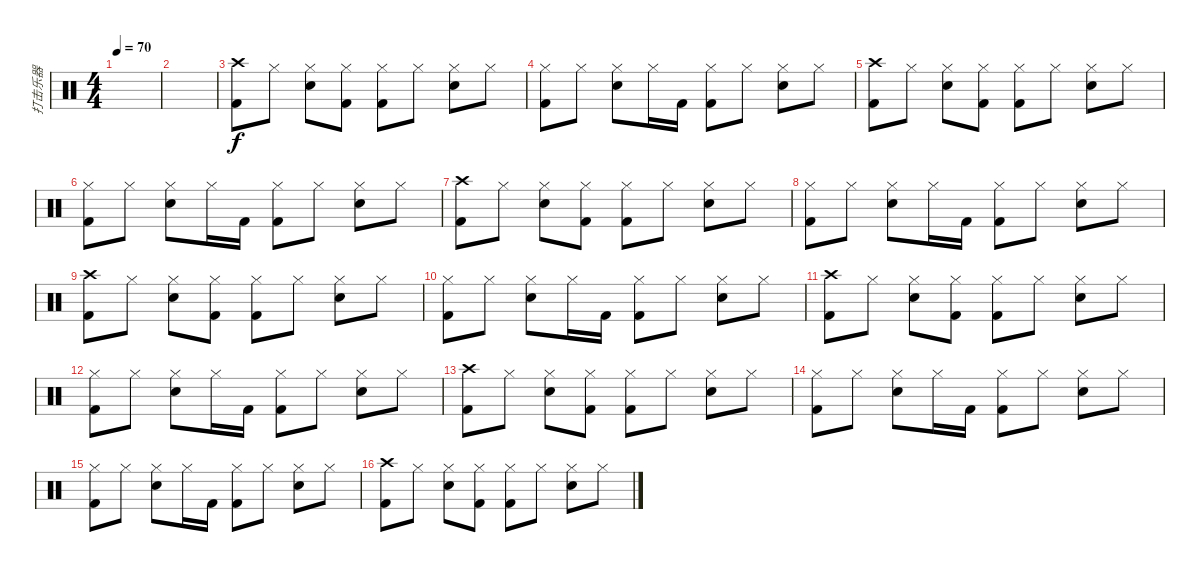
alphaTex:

\track ("打击乐器" "打击乐器") {instrument percussion}
\staff {score}
\articulation defaults
\ts (4 4)
\tempo 70
\clef neutral
\ks c
|
|
("Crash high (hit)" "Kick (hit) 2").8 "Hi-Hat (closed)".8 ("Hi-Hat (closed)" "Snare (hit) 2").8 ("Hi-Hat (closed)" "Kick (hit) 2").8 ("Hi-Hat (closed)" "Kick (hit) 2").8 "Hi-Hat (closed)".8 ("Hi-Hat (closed)" "Snare (hit) 2").8 "Hi-Hat (closed)".8 |
("Hi-Hat (closed)" "Kick (hit) 2").8 "Hi-Hat (closed)".8 ("Hi-Hat (closed)" "Snare (hit) 2").8 "Hi-Hat (closed)".16 "Kick (hit) 2".16 ("Hi-Hat (closed)" "Kick (hit) 2").8 "Hi-Hat (closed)".8 ("Hi-Hat (closed)" "Snare (hit) 2").8 "Hi-Hat (closed)".8 |
("Crash high (hit)" "Kick (hit) 2").8 "Hi-Hat (closed)".8 ("Hi-Hat (closed)" "Snare (hit) 2").8 ("Hi-Hat (closed)" "Kick (hit) 2").8 ("Hi-Hat (closed)" "Kick (hit) 2").8 "Hi-Hat (closed)".8 ("Hi-Hat (closed)" "Snare (hit) 2").8 "Hi-Hat (closed)".8 |
("Hi-Hat (closed)" "Kick (hit) 2").8 "Hi-Hat (closed)".8 ("Hi-Hat (closed)" "Snare (hit) 2").8 "Hi-Hat (closed)".16 "Kick (hit) 2".16 ("Hi-Hat (closed)" "Kick (hit) 2").8 "Hi-Hat (closed)".8 ("Hi-Hat (closed)" "Snare (hit) 2").8 "Hi-Hat (closed)".8 |
("Crash high (hit)" "Kick (hit) 2").8 "Hi-Hat (closed)".8 ("Hi-Hat (closed)" "Snare (hit) 2").8 ("Hi-Hat (closed)" "Kick (hit) 2").8 ("Hi-Hat (closed)" "Kick (hit) 2").8 "Hi-Hat (closed)".8 ("Hi-Hat (closed)" "Snare (hit) 2").8 "Hi-Hat (closed)".8 |
("Hi-Hat (closed)" "Kick (hit) 2").8 "Hi-Hat (closed)".8 ("Hi-Hat (closed)" "Snare (hit) 2").8 "Hi-Hat (closed)".16 "Kick (hit) 2".16 ("Hi-Hat (closed)" "Kick (hit) 2").8 "Hi-Hat (closed)".8 ("Hi-Hat (closed)" "Snare (hit) 2").8 "Hi-Hat (closed)".8 |
("Crash high (hit)" "Kick (hit) 2").8 "Hi-Hat (closed)".8 ("Hi-Hat (closed)" "Snare (hit) 2").8 ("Hi-Hat (closed)" "Kick (hit) 2").8 ("Hi-Hat (closed)" "Kick (hit) 2").8 "Hi-Hat (closed)".8 ("Hi-Hat (closed)" "Snare (hit) 2").8 "Hi-Hat (closed)".8 |
("Hi-Hat (closed)" "Kick (hit) 2").8 "Hi-Hat (closed)".8 ("Hi-Hat (closed)" "Snare (hit) 2").8 "Hi-Hat (closed)".16 "Kick (hit) 2".16 ("Hi-Hat (closed)" "Kick (hit) 2").8 "Hi-Hat (closed)".8 ("Hi-Hat (closed)" "Snare (hit) 2").8 "Hi-Hat (closed)".8 |
("Crash high (hit)" "Kick (hit) 2").8 "Hi-Hat (closed)".8 ("Hi-Hat (closed)" "Snare (hit) 2").8 ("Hi-Hat (closed)" "Kick (hit) 2").8 ("Hi-Hat (closed)" "Kick (hit) 2").8 "Hi-Hat (closed)".8 ("Hi-Hat (closed)" "Snare (hit) 2").8 "Hi-Hat (closed)".8 |
("Hi-Hat (closed)" "Kick (hit) 2").8 "Hi-Hat (closed)".8 ("Hi-Hat (closed)" "Snare (hit) 2").8 "Hi-Hat (closed)".16 "Kick (hit) 2".16 ("Hi-Hat (closed)" "Kick (hit) 2").8 "Hi-Hat (closed)".8 ("Hi-Hat (closed)" "Snare (hit) 2").8 "Hi-Hat (closed)".8 |
("Crash high (hit)" "Kick (hit) 2").8 "Hi-Hat (closed)".8 ("Hi-Hat (closed)" "Snare (hit) 2").8 ("Hi-Hat (closed)" "Kick (hit) 2").8 ("Hi-Hat (closed)" "Kick (hit) 2").8 "Hi-Hat (closed)".8 ("Hi-Hat (closed)" "Snare (hit) 2").8 "Hi-Hat (closed)".8 |
("Hi-Hat (closed)" "Kick (hit) 2").8 "Hi-Hat (closed)".8 ("Hi-Hat (closed)" "Snare (hit) 2").8 "Hi-Hat (closed)".16 "Kick (hit) 2".16 ("Hi-Hat (closed)" "Kick (hit) 2").8 "Hi-Hat (closed)".8 ("Hi-Hat (closed)" "Snare (hit) 2").8 "Hi-Hat (closed)".8 |
("Hi-Hat (closed)" "Kick (hit) 2").8 "Hi-Hat (closed)".8 ("Hi-Hat (closed)" "Snare (hit) 2").8 "Hi-Hat (closed)".16 "Kick (hit) 2".16 ("Hi-Hat (closed)" "Kick (hit) 2").8 "Hi-Hat (closed)".8 ("Hi-Hat (closed)" "Snare (hit) 2").8 "Hi-Hat (closed)".8 |
("Crash high (hit)" "Kick (hit) 2").8 "Hi-Hat (closed)".8 ("Hi-Hat (closed)" "Snare (hit) 2").8 ("Hi-Hat (closed)" "Kick (hit) 2").8 ("Hi-Hat (closed)" "Kick (hit) 2").8 "Hi-Hat (closed)".8 ("Hi-Hat (closed)" "Snare (hit) 2").8 "Hi-Hat (closed)".8
